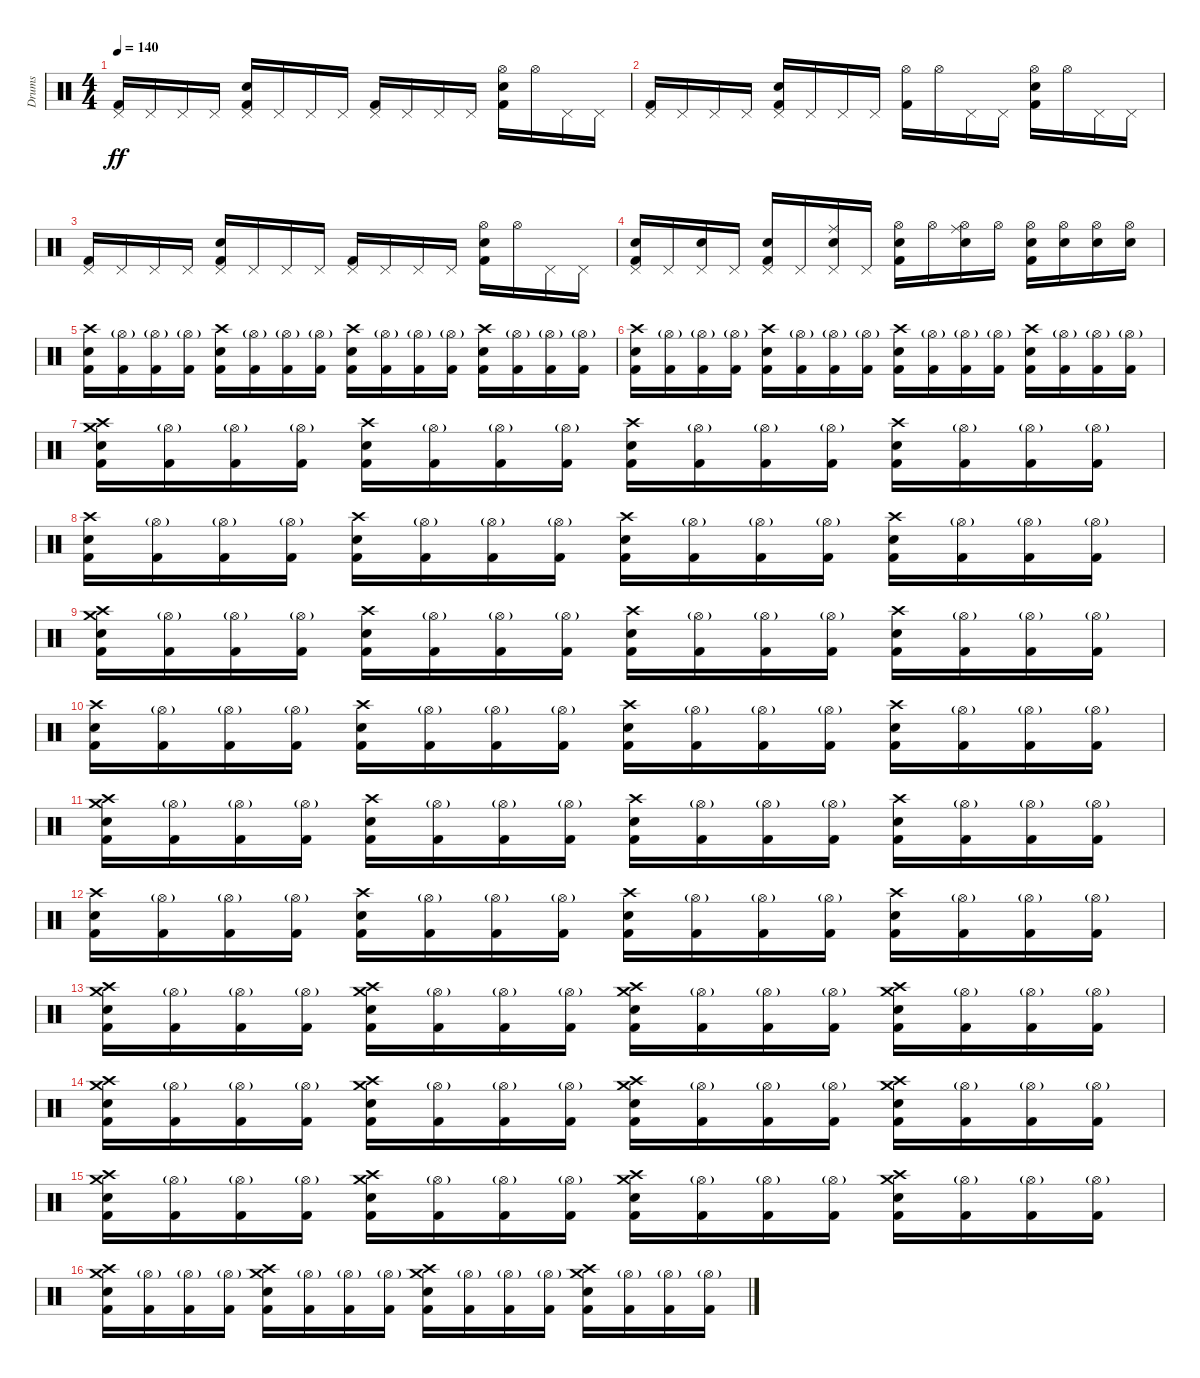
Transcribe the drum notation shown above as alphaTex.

\track ("Drums" "Drums") {instrument percussion}
\staff {score}
\articulation defaults
\ts (4 4)
\tempo 140
\clef neutral
\ks c
("Pedal Hi-Hat (hit)" "Kick (hit) 2").16{dy ff} "Pedal Hi-Hat (hit)".16 "Pedal Hi-Hat (hit)".16 "Pedal Hi-Hat (hit)".16 ("Pedal Hi-Hat (hit)" "Kick (hit) 2" "Electric Snare (hit)").16 "Pedal Hi-Hat (hit)".16 "Pedal Hi-Hat (hit)".16 "Pedal Hi-Hat (hit)".16 ("Pedal Hi-Hat (hit)" "Kick (hit) 2").16 "Pedal Hi-Hat (hit)".16 "Pedal Hi-Hat (hit)".16 "Pedal Hi-Hat (hit)".16 ("Hi-Hat (open)" "Kick (hit) 2" "Electric Snare (hit)").16 "Hi-Hat (open)".16 "Pedal Hi-Hat (hit)".16 "Pedal Hi-Hat (hit)".16 |
("Pedal Hi-Hat (hit)" "Kick (hit) 2").16 "Pedal Hi-Hat (hit)".16 "Pedal Hi-Hat (hit)".16 "Pedal Hi-Hat (hit)".16 ("Pedal Hi-Hat (hit)" "Kick (hit) 2" "Electric Snare (hit)").16 "Pedal Hi-Hat (hit)".16 "Pedal Hi-Hat (hit)".16 "Pedal Hi-Hat (hit)".16 ("Hi-Hat (open)" "Kick (hit) 2").16 "Hi-Hat (open)".16 "Pedal Hi-Hat (hit)".16 "Pedal Hi-Hat (hit)".16 ("Hi-Hat (open)" "Kick (hit) 2" "Electric Snare (hit)").16 "Hi-Hat (open)".16 "Pedal Hi-Hat (hit)".16 "Pedal Hi-Hat (hit)".16 |
("Pedal Hi-Hat (hit)" "Kick (hit) 2").16 "Pedal Hi-Hat (hit)".16 "Pedal Hi-Hat (hit)".16 "Pedal Hi-Hat (hit)".16 ("Pedal Hi-Hat (hit)" "Kick (hit) 2" "Electric Snare (hit)").16 "Pedal Hi-Hat (hit)".16 "Pedal Hi-Hat (hit)".16 "Pedal Hi-Hat (hit)".16 ("Pedal Hi-Hat (hit)" "Kick (hit) 2").16 "Pedal Hi-Hat (hit)".16 "Pedal Hi-Hat (hit)".16 "Pedal Hi-Hat (hit)".16 ("Hi-Hat (open)" "Kick (hit) 2" "Electric Snare (hit)").16 "Hi-Hat (open)".16 "Pedal Hi-Hat (hit)".16 "Pedal Hi-Hat (hit)".16 |
("Pedal Hi-Hat (hit)" "Kick (hit) 2" "Electric Snare (hit)").16 "Pedal Hi-Hat (hit)".16 ("Pedal Hi-Hat (hit)" "Electric Snare (hit)").16 "Pedal Hi-Hat (hit)".16 ("Pedal Hi-Hat (hit)" "Kick (hit) 2" "Electric Snare (hit)").16 "Pedal Hi-Hat (hit)".16 ("Pedal Hi-Hat (hit)" "Ride (middle)" "Electric Snare (hit)").16 "Pedal Hi-Hat (hit)".16 ("Hi-Hat (open)" "Kick (hit) 2" "Electric Snare (hit)").16 "Hi-Hat (open)".16 ("Hi-Hat (open)" "Ride (middle)" "Electric Snare (hit)").16 "Hi-Hat (open)".16 ("Hi-Hat (open)" "Kick (hit) 2" "Electric Snare (hit)").16 ("Hi-Hat (open)" "Electric Snare (hit)").16 ("Hi-Hat (open)" "Electric Snare (hit)").16 ("Hi-Hat (open)" "Electric Snare (hit)").16 |
("Crash high (hit)" "Kick (hit) 2" "Electric Snare (hit)").16 ("Hi-Hat (open)"{g} "Kick (hit) 2").16 ("Hi-Hat (open)"{g} "Kick (hit) 2").16 ("Hi-Hat (open)"{g} "Kick (hit) 2").16 ("Crash high (hit)" "Kick (hit) 2" "Electric Snare (hit)").16 ("Hi-Hat (open)"{g} "Kick (hit) 2").16 ("Hi-Hat (open)"{g} "Kick (hit) 2").16 ("Hi-Hat (open)"{g} "Kick (hit) 2").16 ("Crash high (hit)" "Kick (hit) 2" "Electric Snare (hit)").16 ("Hi-Hat (open)"{g} "Kick (hit) 2").16 ("Hi-Hat (open)"{g} "Kick (hit) 2").16 ("Hi-Hat (open)"{g} "Kick (hit) 2").16 ("Crash high (hit)" "Kick (hit) 2" "Electric Snare (hit)").16 ("Hi-Hat (open)"{g} "Kick (hit) 2").16 ("Hi-Hat (open)"{g} "Kick (hit) 2").16 ("Hi-Hat (open)"{g} "Kick (hit) 2").16 |
("Crash high (hit)" "Kick (hit) 2" "Electric Snare (hit)").16 ("Hi-Hat (open)"{g} "Kick (hit) 2").16 ("Hi-Hat (open)"{g} "Kick (hit) 2").16 ("Hi-Hat (open)"{g} "Kick (hit) 2").16 ("Crash high (hit)" "Kick (hit) 2" "Electric Snare (hit)").16 ("Hi-Hat (open)"{g} "Kick (hit) 2").16 ("Hi-Hat (open)"{g} "Kick (hit) 2").16 ("Hi-Hat (open)"{g} "Kick (hit) 2").16 ("Crash high (hit)" "Kick (hit) 2" "Electric Snare (hit)").16 ("Hi-Hat (open)"{g} "Kick (hit) 2").16 ("Hi-Hat (open)"{g} "Kick (hit) 2").16 ("Hi-Hat (open)"{g} "Kick (hit) 2").16 ("Crash high (hit)" "Kick (hit) 2" "Electric Snare (hit)").16 ("Hi-Hat (open)"{g} "Kick (hit) 2").16 ("Hi-Hat (open)"{g} "Kick (hit) 2").16 ("Hi-Hat (open)"{g} "Kick (hit) 2").16 |
("Crash high (hit)" "Kick (hit) 2" "Crash medium (hit)" "Electric Snare (hit)").16 ("Hi-Hat (open)"{g} "Kick (hit) 2").16 ("Hi-Hat (open)"{g} "Kick (hit) 2").16 ("Hi-Hat (open)"{g} "Kick (hit) 2").16 ("Crash high (hit)" "Kick (hit) 2" "Electric Snare (hit)").16 ("Hi-Hat (open)"{g} "Kick (hit) 2").16 ("Hi-Hat (open)"{g} "Kick (hit) 2").16 ("Hi-Hat (open)"{g} "Kick (hit) 2").16 ("Crash high (hit)" "Kick (hit) 2" "Electric Snare (hit)").16 ("Hi-Hat (open)"{g} "Kick (hit) 2").16 ("Hi-Hat (open)"{g} "Kick (hit) 2").16 ("Hi-Hat (open)"{g} "Kick (hit) 2").16 ("Crash high (hit)" "Kick (hit) 2" "Electric Snare (hit)").16 ("Hi-Hat (open)"{g} "Kick (hit) 2").16 ("Hi-Hat (open)"{g} "Kick (hit) 2").16 ("Hi-Hat (open)"{g} "Kick (hit) 2").16 |
("Crash high (hit)" "Kick (hit) 2" "Electric Snare (hit)").16 ("Hi-Hat (open)"{g} "Kick (hit) 2").16 ("Hi-Hat (open)"{g} "Kick (hit) 2").16 ("Hi-Hat (open)"{g} "Kick (hit) 2").16 ("Crash high (hit)" "Kick (hit) 2" "Electric Snare (hit)").16 ("Hi-Hat (open)"{g} "Kick (hit) 2").16 ("Hi-Hat (open)"{g} "Kick (hit) 2").16 ("Hi-Hat (open)"{g} "Kick (hit) 2").16 ("Crash high (hit)" "Kick (hit) 2" "Electric Snare (hit)").16 ("Hi-Hat (open)"{g} "Kick (hit) 2").16 ("Hi-Hat (open)"{g} "Kick (hit) 2").16 ("Hi-Hat (open)"{g} "Kick (hit) 2").16 ("Crash high (hit)" "Kick (hit) 2" "Electric Snare (hit)").16 ("Hi-Hat (open)"{g} "Kick (hit) 2").16 ("Hi-Hat (open)"{g} "Kick (hit) 2").16 ("Hi-Hat (open)"{g} "Kick (hit) 2").16 |
("Crash high (hit)" "Kick (hit) 2" "Crash medium (hit)" "Electric Snare (hit)").16 ("Hi-Hat (open)"{g} "Kick (hit) 2").16 ("Hi-Hat (open)"{g} "Kick (hit) 2").16 ("Hi-Hat (open)"{g} "Kick (hit) 2").16 ("Crash high (hit)" "Kick (hit) 2" "Electric Snare (hit)").16 ("Hi-Hat (open)"{g} "Kick (hit) 2").16 ("Hi-Hat (open)"{g} "Kick (hit) 2").16 ("Hi-Hat (open)"{g} "Kick (hit) 2").16 ("Crash high (hit)" "Kick (hit) 2" "Electric Snare (hit)").16 ("Hi-Hat (open)"{g} "Kick (hit) 2").16 ("Hi-Hat (open)"{g} "Kick (hit) 2").16 ("Hi-Hat (open)"{g} "Kick (hit) 2").16 ("Crash high (hit)" "Kick (hit) 2" "Electric Snare (hit)").16 ("Hi-Hat (open)"{g} "Kick (hit) 2").16 ("Hi-Hat (open)"{g} "Kick (hit) 2").16 ("Hi-Hat (open)"{g} "Kick (hit) 2").16 |
("Crash high (hit)" "Kick (hit) 2" "Electric Snare (hit)").16 ("Hi-Hat (open)"{g} "Kick (hit) 2").16 ("Hi-Hat (open)"{g} "Kick (hit) 2").16 ("Hi-Hat (open)"{g} "Kick (hit) 2").16 ("Crash high (hit)" "Kick (hit) 2" "Electric Snare (hit)").16 ("Hi-Hat (open)"{g} "Kick (hit) 2").16 ("Hi-Hat (open)"{g} "Kick (hit) 2").16 ("Hi-Hat (open)"{g} "Kick (hit) 2").16 ("Crash high (hit)" "Kick (hit) 2" "Electric Snare (hit)").16 ("Hi-Hat (open)"{g} "Kick (hit) 2").16 ("Hi-Hat (open)"{g} "Kick (hit) 2").16 ("Hi-Hat (open)"{g} "Kick (hit) 2").16 ("Crash high (hit)" "Kick (hit) 2" "Electric Snare (hit)").16 ("Hi-Hat (open)"{g} "Kick (hit) 2").16 ("Hi-Hat (open)"{g} "Kick (hit) 2").16 ("Hi-Hat (open)"{g} "Kick (hit) 2").16 |
("Crash high (hit)" "Kick (hit) 2" "Crash medium (hit)" "Electric Snare (hit)").16 ("Hi-Hat (open)"{g} "Kick (hit) 2").16 ("Hi-Hat (open)"{g} "Kick (hit) 2").16 ("Hi-Hat (open)"{g} "Kick (hit) 2").16 ("Crash high (hit)" "Kick (hit) 2" "Electric Snare (hit)").16 ("Hi-Hat (open)"{g} "Kick (hit) 2").16 ("Hi-Hat (open)"{g} "Kick (hit) 2").16 ("Hi-Hat (open)"{g} "Kick (hit) 2").16 ("Crash high (hit)" "Kick (hit) 2" "Electric Snare (hit)").16 ("Hi-Hat (open)"{g} "Kick (hit) 2").16 ("Hi-Hat (open)"{g} "Kick (hit) 2").16 ("Hi-Hat (open)"{g} "Kick (hit) 2").16 ("Crash high (hit)" "Kick (hit) 2" "Electric Snare (hit)").16 ("Hi-Hat (open)"{g} "Kick (hit) 2").16 ("Hi-Hat (open)"{g} "Kick (hit) 2").16 ("Hi-Hat (open)"{g} "Kick (hit) 2").16 |
("Crash high (hit)" "Kick (hit) 2" "Electric Snare (hit)").16 ("Hi-Hat (open)"{g} "Kick (hit) 2").16 ("Hi-Hat (open)"{g} "Kick (hit) 2").16 ("Hi-Hat (open)"{g} "Kick (hit) 2").16 ("Crash high (hit)" "Kick (hit) 2" "Electric Snare (hit)").16 ("Hi-Hat (open)"{g} "Kick (hit) 2").16 ("Hi-Hat (open)"{g} "Kick (hit) 2").16 ("Hi-Hat (open)"{g} "Kick (hit) 2").16 ("Crash high (hit)" "Kick (hit) 2" "Electric Snare (hit)").16 ("Hi-Hat (open)"{g} "Kick (hit) 2").16 ("Hi-Hat (open)"{g} "Kick (hit) 2").16 ("Hi-Hat (open)"{g} "Kick (hit) 2").16 ("Crash high (hit)" "Kick (hit) 2" "Electric Snare (hit)").16 ("Hi-Hat (open)"{g} "Kick (hit) 2").16 ("Hi-Hat (open)"{g} "Kick (hit) 2").16 ("Hi-Hat (open)"{g} "Kick (hit) 2").16 |
("Crash high (hit)" "Kick (hit) 2" "Crash medium (hit)" "Electric Snare (hit)").16 ("Hi-Hat (open)"{g} "Kick (hit) 2").16 ("Hi-Hat (open)"{g} "Kick (hit) 2").16 ("Hi-Hat (open)"{g} "Kick (hit) 2").16 ("Crash high (hit)" "Kick (hit) 2" "Crash medium (hit)" "Electric Snare (hit)").16 ("Hi-Hat (open)"{g} "Kick (hit) 2").16 ("Hi-Hat (open)"{g} "Kick (hit) 2").16 ("Hi-Hat (open)"{g} "Kick (hit) 2").16 ("Crash high (hit)" "Kick (hit) 2" "Crash medium (hit)" "Electric Snare (hit)").16 ("Hi-Hat (open)"{g} "Kick (hit) 2").16 ("Hi-Hat (open)"{g} "Kick (hit) 2").16 ("Hi-Hat (open)"{g} "Kick (hit) 2").16 ("Crash high (hit)" "Kick (hit) 2" "Crash medium (hit)" "Electric Snare (hit)").16 ("Hi-Hat (open)"{g} "Kick (hit) 2").16 ("Hi-Hat (open)"{g} "Kick (hit) 2").16 ("Hi-Hat (open)"{g} "Kick (hit) 2").16 |
("Crash high (hit)" "Kick (hit) 2" "Crash medium (hit)" "Electric Snare (hit)").16 ("Hi-Hat (open)"{g} "Kick (hit) 2").16 ("Hi-Hat (open)"{g} "Kick (hit) 2").16 ("Hi-Hat (open)"{g} "Kick (hit) 2").16 ("Crash high (hit)" "Kick (hit) 2" "Crash medium (hit)" "Electric Snare (hit)").16 ("Hi-Hat (open)"{g} "Kick (hit) 2").16 ("Hi-Hat (open)"{g} "Kick (hit) 2").16 ("Hi-Hat (open)"{g} "Kick (hit) 2").16 ("Crash high (hit)" "Kick (hit) 2" "Crash medium (hit)" "Electric Snare (hit)").16 ("Hi-Hat (open)"{g} "Kick (hit) 2").16 ("Hi-Hat (open)"{g} "Kick (hit) 2").16 ("Hi-Hat (open)"{g} "Kick (hit) 2").16 ("Crash high (hit)" "Kick (hit) 2" "Crash medium (hit)" "Electric Snare (hit)").16 ("Hi-Hat (open)"{g} "Kick (hit) 2").16 ("Hi-Hat (open)"{g} "Kick (hit) 2").16 ("Hi-Hat (open)"{g} "Kick (hit) 2").16 |
("Crash high (hit)" "Kick (hit) 2" "Crash medium (hit)" "Electric Snare (hit)").16 ("Hi-Hat (open)"{g} "Kick (hit) 2").16 ("Hi-Hat (open)"{g} "Kick (hit) 2").16 ("Hi-Hat (open)"{g} "Kick (hit) 2").16 ("Crash high (hit)" "Kick (hit) 2" "Crash medium (hit)" "Electric Snare (hit)").16 ("Hi-Hat (open)"{g} "Kick (hit) 2").16 ("Hi-Hat (open)"{g} "Kick (hit) 2").16 ("Hi-Hat (open)"{g} "Kick (hit) 2").16 ("Crash high (hit)" "Kick (hit) 2" "Crash medium (hit)" "Electric Snare (hit)").16 ("Hi-Hat (open)"{g} "Kick (hit) 2").16 ("Hi-Hat (open)"{g} "Kick (hit) 2").16 ("Hi-Hat (open)"{g} "Kick (hit) 2").16 ("Crash high (hit)" "Kick (hit) 2" "Crash medium (hit)" "Electric Snare (hit)").16 ("Hi-Hat (open)"{g} "Kick (hit) 2").16 ("Hi-Hat (open)"{g} "Kick (hit) 2").16 ("Hi-Hat (open)"{g} "Kick (hit) 2").16 |
("Crash high (hit)" "Kick (hit) 2" "Crash medium (hit)" "Electric Snare (hit)").16 ("Hi-Hat (open)"{g} "Kick (hit) 2").16 ("Hi-Hat (open)"{g} "Kick (hit) 2").16 ("Hi-Hat (open)"{g} "Kick (hit) 2").16 ("Crash high (hit)" "Kick (hit) 2" "Crash medium (hit)" "Electric Snare (hit)").16 ("Hi-Hat (open)"{g} "Kick (hit) 2").16 ("Hi-Hat (open)"{g} "Kick (hit) 2").16 ("Hi-Hat (open)"{g} "Kick (hit) 2").16 ("Crash high (hit)" "Kick (hit) 2" "Crash medium (hit)" "Electric Snare (hit)").16 ("Hi-Hat (open)"{g} "Kick (hit) 2").16 ("Hi-Hat (open)"{g} "Kick (hit) 2").16 ("Hi-Hat (open)"{g} "Kick (hit) 2").16 ("Crash high (hit)" "Kick (hit) 2" "Crash medium (hit)" "Electric Snare (hit)").16 ("Hi-Hat (open)"{g} "Kick (hit) 2").16 ("Hi-Hat (open)"{g} "Kick (hit) 2").16 ("Hi-Hat (open)"{g} "Kick (hit) 2").16
